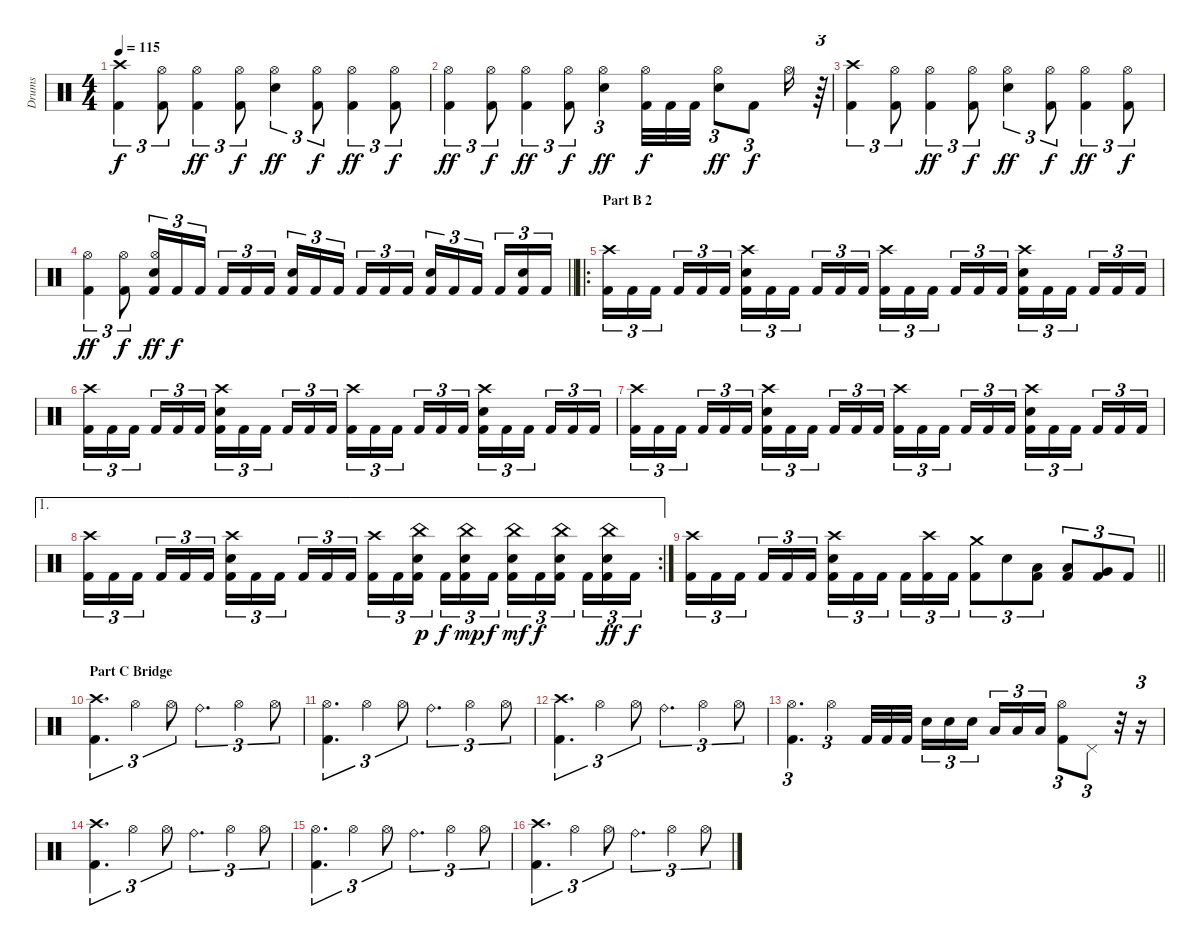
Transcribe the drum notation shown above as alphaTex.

\track ("Drums" "Drums") {instrument percussion}
\staff {score}
\articulation defaults
\ts (4 4)
\tempo 115
\clef neutral
\ks c
("Crash high (hit)" "Kick (hit) 2").4{tu (3 2) dy f} ("Kick (hit) 2" "Hi-Hat (open)").8{tu (3 2)} ("Hi-Hat (open)" "Kick (hit) 2").4{tu (3 2) dy ff} ("Hi-Hat (open)" "Kick (hit) 2").8{tu (3 2) dy f} ("Hi-Hat (open)" "Snare (hit) 2").4{tu (3 2) dy ff} ("Hi-Hat (open)" "Kick (hit) 2").8{tu (3 2) dy f} ("Hi-Hat (open)" "Kick (hit) 2").4{tu (3 2) dy ff} ("Hi-Hat (open)" "Kick (hit) 2").8{tu (3 2) dy f} |
("Hi-Hat (open)" "Kick (hit) 2").4{tu (3 2) dy ff} ("Kick (hit) 2" "Hi-Hat (open)").8{tu (3 2) dy f} ("Hi-Hat (open)" "Kick (hit) 2").4{tu (3 2) dy ff} ("Hi-Hat (open)" "Kick (hit) 2").8{tu (3 2) dy f} ("Hi-Hat (open)" "Snare (hit) 2").4{tu (3 2) dy ff} ("Hi-Hat (open)" "Kick (hit) 2").32{dy f} "Kick (hit) 2".32 "Kick (hit) 2".32 ("Snare (hit) 2" "Hi-Hat (open)").8{tu (3 2) dy ff} "Kick (hit) 2".8{tu (3 2) dy f} "Hi-Hat (open)".16 r.64{tu (3 2)} |
("Crash high (hit)" "Kick (hit) 2").4{tu (3 2)} ("Kick (hit) 2" "Hi-Hat (open)").8{tu (3 2)} ("Hi-Hat (open)" "Kick (hit) 2").4{tu (3 2) dy ff} ("Hi-Hat (open)" "Kick (hit) 2").8{tu (3 2) dy f} ("Hi-Hat (open)" "Snare (hit) 2").4{tu (3 2) dy ff} ("Hi-Hat (open)" "Kick (hit) 2").8{tu (3 2) dy f} ("Hi-Hat (open)" "Kick (hit) 2").4{tu (3 2) dy ff} ("Hi-Hat (open)" "Kick (hit) 2").8{tu (3 2) dy f} |
\barLineRight lightlight
("Hi-Hat (open)" "Kick (hit) 2").4{tu (3 2) dy ff} ("Kick (hit) 2" "Hi-Hat (open)").8{tu (3 2) dy f} ("Snare (hit) 2" "Hi-Hat (open)" "Kick (hit) 2").16{tu (3 2) dy ff} "Kick (hit) 2".16{tu (3 2) dy f} "Kick (hit) 2".16{tu (3 2) beam splitsecondary} "Kick (hit) 2".16{tu (3 2)} "Kick (hit) 2".16{tu (3 2)} "Kick (hit) 2".16{tu (3 2)} ("Kick (hit) 2" "Snare (hit) 2").16{tu (3 2)} "Kick (hit) 2".16{tu (3 2)} "Kick (hit) 2".16{tu (3 2) beam splitsecondary} "Kick (hit) 2".16{tu (3 2)} "Kick (hit) 2".16{tu (3 2)} "Kick (hit) 2".16{tu (3 2)} ("Kick (hit) 2" "Snare (hit) 2").16{tu (3 2)} "Kick (hit) 2".16{tu (3 2)} "Kick (hit) 2".16{tu (3 2) beam splitsecondary} "Kick (hit) 2".16{tu (3 2)} ("Kick (hit) 2" "Snare (hit) 2").16{tu (3 2)} "Kick (hit) 2".16{tu (3 2)} |
\ro
\section ("" "Part B 2")
("Kick (hit) 2" "Crash high (hit)").16{tu (3 2)} "Kick (hit) 2".16{tu (3 2)} "Kick (hit) 2".16{tu (3 2) beam splitsecondary} "Kick (hit) 2".16{tu (3 2)} "Kick (hit) 2".16{tu (3 2)} "Kick (hit) 2".16{tu (3 2)} ("Kick (hit) 2" "Crash high (hit)" "Snare (hit) 2").16{tu (3 2)} "Kick (hit) 2".16{tu (3 2)} "Kick (hit) 2".16{tu (3 2) beam splitsecondary} "Kick (hit) 2".16{tu (3 2)} "Kick (hit) 2".16{tu (3 2)} "Kick (hit) 2".16{tu (3 2)} ("Kick (hit) 2" "Crash high (hit)").16{tu (3 2)} "Kick (hit) 2".16{tu (3 2)} "Kick (hit) 2".16{tu (3 2) beam splitsecondary} "Kick (hit) 2".16{tu (3 2)} "Kick (hit) 2".16{tu (3 2)} "Kick (hit) 2".16{tu (3 2)} ("Kick (hit) 2" "Crash high (hit)" "Snare (hit) 2").16{tu (3 2)} "Kick (hit) 2".16{tu (3 2)} "Kick (hit) 2".16{tu (3 2) beam splitsecondary} "Kick (hit) 2".16{tu (3 2)} "Kick (hit) 2".16{tu (3 2)} "Kick (hit) 2".16{tu (3 2)} |
("Kick (hit) 2" "Crash high (hit)").16{tu (3 2)} "Kick (hit) 2".16{tu (3 2)} "Kick (hit) 2".16{tu (3 2) beam splitsecondary} "Kick (hit) 2".16{tu (3 2)} "Kick (hit) 2".16{tu (3 2)} "Kick (hit) 2".16{tu (3 2)} ("Kick (hit) 2" "Crash high (hit)" "Snare (hit) 2").16{tu (3 2)} "Kick (hit) 2".16{tu (3 2)} "Kick (hit) 2".16{tu (3 2) beam splitsecondary} "Kick (hit) 2".16{tu (3 2)} "Kick (hit) 2".16{tu (3 2)} "Kick (hit) 2".16{tu (3 2)} ("Kick (hit) 2" "Crash high (hit)").16{tu (3 2)} "Kick (hit) 2".16{tu (3 2)} "Kick (hit) 2".16{tu (3 2) beam splitsecondary} "Kick (hit) 2".16{tu (3 2)} "Kick (hit) 2".16{tu (3 2)} "Kick (hit) 2".16{tu (3 2)} ("Kick (hit) 2" "Crash high (hit)" "Snare (hit) 2").16{tu (3 2)} "Kick (hit) 2".16{tu (3 2)} "Kick (hit) 2".16{tu (3 2) beam splitsecondary} "Kick (hit) 2".16{tu (3 2)} "Kick (hit) 2".16{tu (3 2)} "Kick (hit) 2".16{tu (3 2)} |
("Kick (hit) 2" "Crash high (hit)").16{tu (3 2)} "Kick (hit) 2".16{tu (3 2)} "Kick (hit) 2".16{tu (3 2) beam splitsecondary} "Kick (hit) 2".16{tu (3 2)} "Kick (hit) 2".16{tu (3 2)} "Kick (hit) 2".16{tu (3 2)} ("Kick (hit) 2" "Crash high (hit)" "Snare (hit) 2").16{tu (3 2)} "Kick (hit) 2".16{tu (3 2)} "Kick (hit) 2".16{tu (3 2) beam splitsecondary} "Kick (hit) 2".16{tu (3 2)} "Kick (hit) 2".16{tu (3 2)} "Kick (hit) 2".16{tu (3 2)} ("Kick (hit) 2" "Crash high (hit)").16{tu (3 2)} "Kick (hit) 2".16{tu (3 2)} "Kick (hit) 2".16{tu (3 2) beam splitsecondary} "Kick (hit) 2".16{tu (3 2)} "Kick (hit) 2".16{tu (3 2)} "Kick (hit) 2".16{tu (3 2)} ("Kick (hit) 2" "Crash high (hit)" "Snare (hit) 2").16{tu (3 2)} "Kick (hit) 2".16{tu (3 2)} "Kick (hit) 2".16{tu (3 2) beam splitsecondary} "Kick (hit) 2".16{tu (3 2)} "Kick (hit) 2".16{tu (3 2)} "Kick (hit) 2".16{tu (3 2)} |
\ae 1
\rc 2
("Kick (hit) 2" "Crash high (hit)").16{tu (3 2)} "Kick (hit) 2".16{tu (3 2)} "Kick (hit) 2".16{tu (3 2) beam splitsecondary} "Kick (hit) 2".16{tu (3 2)} "Kick (hit) 2".16{tu (3 2)} "Kick (hit) 2".16{tu (3 2)} ("Kick (hit) 2" "Crash high (hit)" "Snare (hit) 2").16{tu (3 2)} "Kick (hit) 2".16{tu (3 2)} "Kick (hit) 2".16{tu (3 2) beam splitsecondary} "Kick (hit) 2".16{tu (3 2)} "Kick (hit) 2".16{tu (3 2)} "Kick (hit) 2".16{tu (3 2)} ("Kick (hit) 2" "Crash high (hit)").16{tu (3 2)} "Kick (hit) 2".16{tu (3 2)} ("Kick (hit) 2" "Snare (hit) 2" "China (hit)").16{tu (3 2) dy p beam splitsecondary} "Kick (hit) 2".16{tu (3 2) dy f} ("Kick (hit) 2" "Snare (hit) 2" "China (hit)").16{tu (3 2) dy mp} "Kick (hit) 2".16{tu (3 2) dy f} ("Kick (hit) 2" "China (hit)" "Snare (hit) 2").16{tu (3 2) dy mf} "Kick (hit) 2".16{tu (3 2) dy f} ("Kick (hit) 2" "Snare (hit) 2" "China (hit)").16{tu (3 2) beam splitsecondary} "Kick (hit) 2".16{tu (3 2)} ("Kick (hit) 2" "Snare (hit) 2" "China (hit)").16{tu (3 2) dy ff} "Kick (hit) 2".16{tu (3 2) dy f} |
\barLineRight lightlight
("Kick (hit) 2" "Crash high (hit)").16{tu (3 2)} "Kick (hit) 2".16{tu (3 2)} "Kick (hit) 2".16{tu (3 2) beam splitsecondary} "Kick (hit) 2".16{tu (3 2)} "Kick (hit) 2".16{tu (3 2)} "Kick (hit) 2".16{tu (3 2)} ("Kick (hit) 2" "Crash high (hit)" "Snare (hit) 2").16{tu (3 2)} "Kick (hit) 2".16{tu (3 2)} "Kick (hit) 2".16{tu (3 2) beam splitsecondary} "Kick (hit) 2".16{tu (3 2)} ("Kick (hit) 2" "Crash high (hit)").16{tu (3 2)} "Kick (hit) 2".16{tu (3 2)} ("Kick (hit) 2" "Crash medium (hit)").8{tu (3 2)} "Snare (hit) 2".8{tu (3 2)} ("Kick (hit) 2" "Low Tom (hit)").8{tu (3 2)} ("Kick (hit) 2" "Low Tom (hit)").8{tu (3 2)} ("Very Low Tom (hit)" "Kick (hit) 2").8{tu (3 2)} "Kick (hit) 2".8{tu (3 2)} |
\section ("" "Part C Bridge")
("Crash high (hit)" "Kick (hit) 2").4{d tu (3 2)} "Hi-Hat (open)".4{tu (3 2)} "Hi-Hat (open)".8{tu (3 2)} "Ride (bell)".4{d tu (3 2)} "Hi-Hat (open)".4{tu (3 2)} "Hi-Hat (open)".8{tu (3 2)} |
("Kick (hit) 2" "Hi-Hat (open)").4{d tu (3 2)} "Hi-Hat (open)".4{tu (3 2)} "Hi-Hat (open)".8{tu (3 2)} "Ride (bell)".4{d tu (3 2)} "Hi-Hat (open)".4{tu (3 2)} "Hi-Hat (open)".8{tu (3 2)} |
("Crash high (hit)" "Kick (hit) 2").4{d tu (3 2)} "Hi-Hat (open)".4{tu (3 2)} "Hi-Hat (open)".8{tu (3 2)} "Ride (bell)".4{d tu (3 2)} "Hi-Hat (open)".4{tu (3 2)} "Hi-Hat (open)".8{tu (3 2)} |
("Kick (hit) 2" "Hi-Hat (open)").4{d tu (3 2)} "Hi-Hat (open)".4{tu (3 2)} "Kick (hit) 2".32 "Kick (hit) 2".32 "Kick (hit) 2".32 "Snare (hit) 2".16{tu (3 2)} "Snare (hit) 2".16{tu (3 2)} "Snare (hit) 2".16{tu (3 2) beam splitsecondary} "Low Tom (hit)".16{tu (3 2)} "Low Tom (hit)".16{tu (3 2)} "Low Tom (hit)".16{tu (3 2)} ("Kick (hit) 2" "Hi-Hat (open)").8{tu (3 2)} "Pedal Hi-Hat (hit)".8{tu (3 2)} r.32 r.16{tu (3 2)} |
("Crash high (hit)" "Kick (hit) 2").4{d tu (3 2)} "Hi-Hat (open)".4{tu (3 2)} "Hi-Hat (open)".8{tu (3 2)} "Ride (bell)".4{d tu (3 2)} "Hi-Hat (open)".4{tu (3 2)} "Hi-Hat (open)".8{tu (3 2)} |
("Kick (hit) 2" "Hi-Hat (open)").4{d tu (3 2)} "Hi-Hat (open)".4{tu (3 2)} "Hi-Hat (open)".8{tu (3 2)} "Ride (bell)".4{d tu (3 2)} "Hi-Hat (open)".4{tu (3 2)} "Hi-Hat (open)".8{tu (3 2)} |
("Crash high (hit)" "Kick (hit) 2").4{d tu (3 2)} "Hi-Hat (open)".4{tu (3 2)} "Hi-Hat (open)".8{tu (3 2)} "Ride (bell)".4{d tu (3 2)} "Hi-Hat (open)".4{tu (3 2)} "Hi-Hat (open)".8{tu (3 2)}
